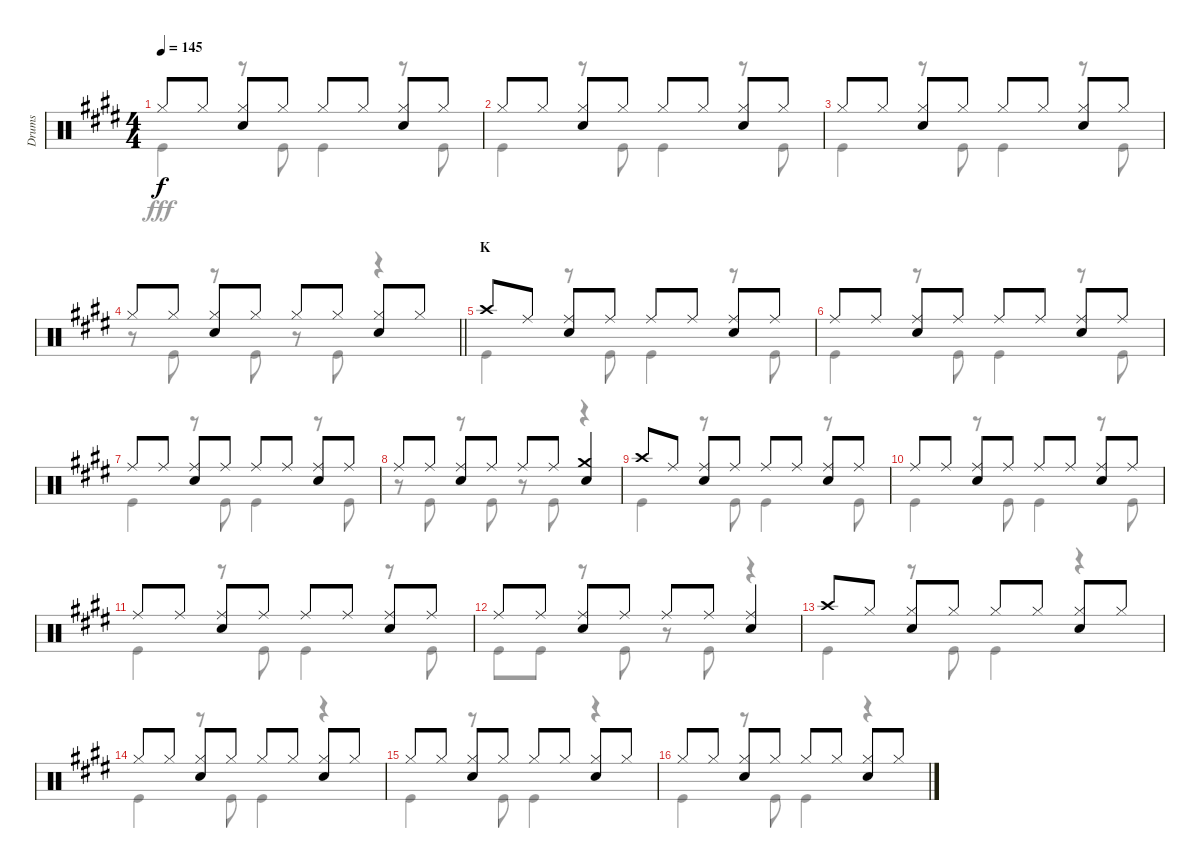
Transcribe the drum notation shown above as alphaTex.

\track ("Drums" "Drums") {instrument percussion}
\staff {score}
\articulation defaults
\voice
\ts (4 4)
\tempo 145
\clef neutral
\ks e "Hi-Hat (closed)".8{dy f} "Hi-Hat (closed)".8
("Hi-Hat (closed)" "Snare (hit) 2").8 "Hi-Hat (closed)".8 "Hi-Hat (closed)".8 "Hi-Hat (closed)".8 ("Hi-Hat (closed)" "Snare (hit) 2").8 "Hi-Hat (closed)".8 |
"Hi-Hat (closed)".8 "Hi-Hat (closed)".8 ("Hi-Hat (closed)" "Snare (hit) 2").8 "Hi-Hat (closed)".8 "Hi-Hat (closed)".8 "Hi-Hat (closed)".8 ("Hi-Hat (closed)" "Snare (hit) 2").8 "Hi-Hat (closed)".8 |
"Hi-Hat (closed)".8 "Hi-Hat (closed)".8 ("Hi-Hat (closed)" "Snare (hit) 2").8 "Hi-Hat (closed)".8 "Hi-Hat (closed)".8 "Hi-Hat (closed)".8 ("Hi-Hat (closed)" "Snare (hit) 2").8 "Hi-Hat (closed)".8 |
\barLineRight lightlight "Hi-Hat (closed)".8 "Hi-Hat (closed)".8
("Hi-Hat (closed)" "Snare (hit) 2").8 "Hi-Hat (closed)".8 "Hi-Hat (closed)".8 "Hi-Hat (closed)".8 ("Hi-Hat (closed)" "Snare (hit) 2").8 "Hi-Hat (closed)".8 |
\section ("" "K")
"Crash high (hit)".8 "Ride (middle)".8 ("Ride (middle)" "Snare (hit) 2").8 "Ride (middle)".8 "Ride (middle)".8 "Ride (middle)".8 ("Ride (middle)" "Snare (hit) 2").8 "Ride (middle)".8 |
"Ride (middle)".8 "Ride (middle)".8 ("Ride (middle)" "Snare (hit) 2").8 "Ride (middle)".8 "Ride (middle)".8 "Ride (middle)".8 ("Ride (middle)" "Snare (hit) 2").8 "Ride (middle)".8 |
"Ride (middle)".8 "Ride (middle)".8 ("Ride (middle)" "Snare (hit) 2").8 "Ride (middle)".8 "Ride (middle)".8 "Ride (middle)".8 ("Ride (middle)" "Snare (hit) 2").8 "Ride (middle)".8 |
"Ride (middle)".8 "Ride (middle)".8 ("Ride (middle)" "Snare (hit) 2").8 "Ride (middle)".8 "Ride (middle)".8 "Ride (middle)".8 ("Crash medium (hit)" "Snare (hit) 2").4 |
"Crash high (hit)".8 "Ride (middle)".8 ("Ride (middle)" "Snare (hit) 2").8 "Ride (middle)".8 "Ride (middle)".8 "Ride (middle)".8 ("Ride (middle)" "Snare (hit) 2").8 "Ride (middle)".8 |
"Ride (middle)".8 "Ride (middle)".8 ("Ride (middle)" "Snare (hit) 2").8 "Ride (middle)".8 "Ride (middle)".8 "Ride (middle)".8 ("Ride (middle)" "Snare (hit) 2").8 "Ride (middle)".8 |
"Ride (middle)".8 "Ride (middle)".8 ("Ride (middle)" "Snare (hit) 2").8 "Ride (middle)".8 "Ride (middle)".8 "Ride (middle)".8 ("Ride (middle)" "Snare (hit) 2").8 "Ride (middle)".8 |
"Ride (middle)".8 "Ride (middle)".8 ("Ride (middle)" "Snare (hit) 2").8 "Ride (middle)".8 "Ride (middle)".8 "Ride (middle)".8 ("Ride (middle)" "Snare (hit) 2").4 |
"Crash high (hit)".8 "Hi-Hat (closed)".8 ("Hi-Hat (closed)" "Snare (hit) 2").8 "Hi-Hat (closed)".8 "Hi-Hat (closed)".8 "Hi-Hat (closed)".8 ("Hi-Hat (closed)" "Snare (hit) 2").8 "Hi-Hat (closed)".8 |
"Hi-Hat (closed)".8 "Hi-Hat (closed)".8 ("Hi-Hat (closed)" "Snare (hit) 2").8 "Hi-Hat (closed)".8 "Hi-Hat (closed)".8 "Hi-Hat (closed)".8 ("Hi-Hat (closed)" "Snare (hit) 2").8 "Hi-Hat (closed)".8 |
"Hi-Hat (closed)".8 "Hi-Hat (closed)".8 ("Hi-Hat (closed)" "Snare (hit) 2").8 "Hi-Hat (closed)".8 "Hi-Hat (closed)".8 "Hi-Hat (closed)".8 ("Hi-Hat (closed)" "Snare (hit) 2").8 "Hi-Hat (closed)".8 |
"Hi-Hat (closed)".8 "Hi-Hat (closed)".8 ("Hi-Hat (closed)" "Snare (hit) 2").8 "Hi-Hat (closed)".8 "Hi-Hat (closed)".8 "Hi-Hat (closed)".8 ("Hi-Hat (closed)" "Snare (hit) 2").8 "Hi-Hat (closed)".8
\voice
\clef neutral
\ottava regular
\simile none
\ks e "Kick (hit)".4{dy fff}
r.8 "Kick (hit)".8 "Kick (hit)".4 r.8 "Kick (hit)".8 |
"Kick (hit)".4 r.8 "Kick (hit)".8 "Kick (hit)".4 r.8 "Kick (hit)".8 |
"Kick (hit)".4 r.8 "Kick (hit)".8 "Kick (hit)".4 r.8 "Kick (hit)".8 |
\barLineRight lightlight
r.8 "Kick (hit)".8 r.8 "Kick (hit)".8 r.8 "Kick (hit)".8 r.4 |
"Kick (hit)".4 r.8 "Kick (hit)".8 "Kick (hit)".4 r.8 "Kick (hit)".8 |
"Kick (hit)".4 r.8 "Kick (hit)".8 "Kick (hit)".4 r.8 "Kick (hit)".8 |
"Kick (hit)".4 r.8 "Kick (hit)".8 "Kick (hit)".4 r.8 "Kick (hit)".8 |
r.8 "Kick (hit)".8 r.8 "Kick (hit)".8 r.8 "Kick (hit)".8 r.4 |
"Kick (hit)".4 r.8 "Kick (hit)".8 "Kick (hit)".4 r.8 "Kick (hit)".8 |
"Kick (hit)".4 r.8 "Kick (hit)".8 "Kick (hit)".4 r.8 "Kick (hit)".8 |
"Kick (hit)".4 r.8 "Kick (hit)".8 "Kick (hit)".4 r.8 "Kick (hit)".8 |
"Kick (hit)".8 "Kick (hit)".8 r.8 "Kick (hit)".8 r.8 "Kick (hit)".8 r.4 |
"Kick (hit)".4 r.8 "Kick (hit)".8 "Kick (hit)".4 r.4 |
"Kick (hit)".4 r.8 "Kick (hit)".8 "Kick (hit)".4 r.4 |
"Kick (hit)".4 r.8 "Kick (hit)".8 "Kick (hit)".4 r.4 |
"Kick (hit)".4 r.8 "Kick (hit)".8 "Kick (hit)".4 r.4
